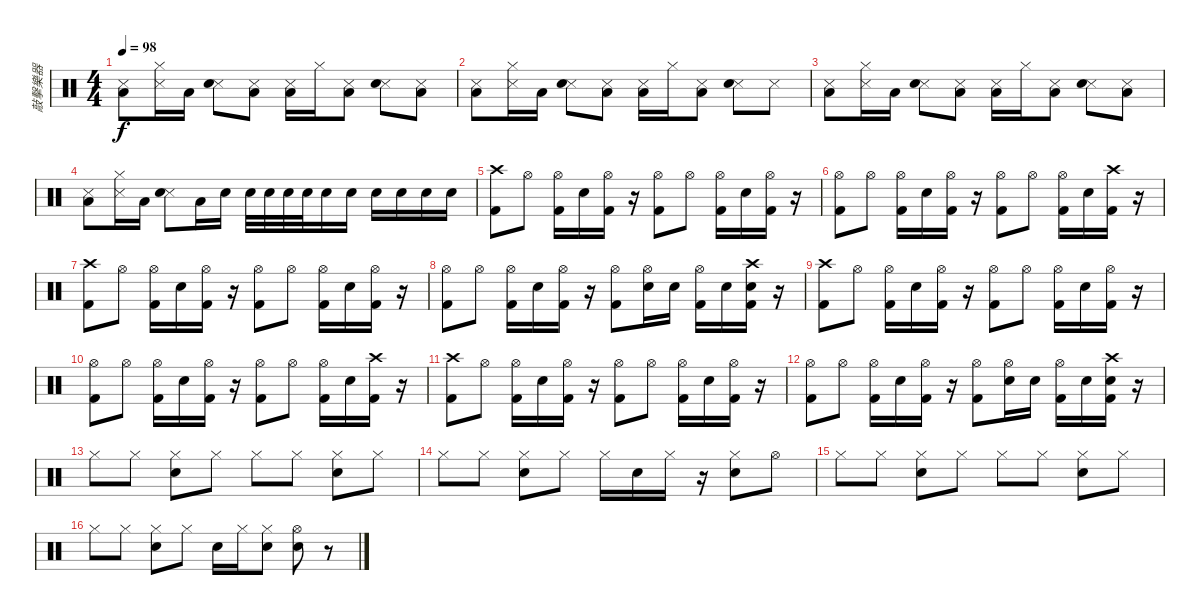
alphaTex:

\track ("敲擊樂器" "敲擊樂器") {instrument percussion}
\staff {score}
\articulation defaults
\ts (4 4)
\tempo 98
\clef neutral
\ks c
("Snare (side stick) 3" "Low Floor Tom (hit)").8{dy f volume 5} ("Snare (side stick) 3" "Hi-Hat (closed)").16 "Low Floor Tom (hit)".16 ("Snare (side stick) 3" "Electric Snare (hit)").8 ("Snare (side stick) 3" "Low Floor Tom (hit)").8 ("Snare (side stick) 3" "Low Floor Tom (hit)").16 "Hi-Hat (closed)".16 ("Snare (side stick) 3" "Low Floor Tom (hit)").8 ("Snare (side stick) 3" "Electric Snare (hit)").8 ("Snare (side stick) 3" "Low Floor Tom (hit)").8 |
("Snare (side stick) 3" "Low Floor Tom (hit)").8 ("Snare (side stick) 3" "Hi-Hat (closed)").16 "Low Floor Tom (hit)".16 ("Snare (side stick) 3" "Electric Snare (hit)").8 ("Snare (side stick) 3" "Low Floor Tom (hit)").8 ("Snare (side stick) 3" "Low Floor Tom (hit)").16 "Hi-Hat (closed)".16 ("Snare (side stick) 3" "Low Floor Tom (hit)").8 ("Snare (side stick) 3" "Electric Snare (hit)").8 "Snare (side stick) 3".8 |
("Snare (side stick) 3" "Low Floor Tom (hit)").8 ("Snare (side stick) 3" "Hi-Hat (closed)").16 "Low Floor Tom (hit)".16 ("Snare (side stick) 3" "Electric Snare (hit)").8 ("Snare (side stick) 3" "Low Floor Tom (hit)").8 ("Snare (side stick) 3" "Low Floor Tom (hit)").16 "Hi-Hat (closed)".16 ("Snare (side stick) 3" "Low Floor Tom (hit)").8 ("Snare (side stick) 3" "Electric Snare (hit)").8 ("Snare (side stick) 3" "Low Floor Tom (hit)").8 |
("Snare (side stick) 3" "Low Floor Tom (hit)").8 ("Snare (side stick) 3" "Hi-Hat (closed)").16 "Low Floor Tom (hit)".16 ("Snare (side stick) 3" "Electric Snare (hit)").8 "Low Floor Tom (hit)".16 "Snare (hit) 2".16 "Snare (hit) 2".32 "Snare (hit) 2".32 "Snare (hit) 2".32 "Snare (hit) 2".32 "Snare (hit) 2".16{volume 15 balance 8} "Snare (hit) 2".16 "Snare (hit) 2".16 "Snare (hit) 2".16 "Snare (hit) 2".16 "Snare (hit) 2".16 |
("Kick (hit) 2" "Crash high (hit)").8 "Hi-Hat (open)".8 ("Kick (hit) 2" "Hi-Hat (open)").16 "Snare (hit) 2".16 ("Kick (hit) 2" "Hi-Hat (open)").16 r.16 ("Kick (hit) 2" "Hi-Hat (open)").8 "Hi-Hat (open)".8 ("Kick (hit) 2" "Hi-Hat (open)").16 "Snare (hit) 2".16 ("Kick (hit) 2" "Hi-Hat (open)").16 r.16 |
("Kick (hit) 2" "Hi-Hat (open)").8 "Hi-Hat (open)".8 ("Kick (hit) 2" "Hi-Hat (open)").16 "Snare (hit) 2".16 ("Kick (hit) 2" "Hi-Hat (open)").16 r.16 ("Kick (hit) 2" "Hi-Hat (open)").8 "Hi-Hat (open)".8 ("Kick (hit) 2" "Hi-Hat (open)").16 "Snare (hit) 2".16 ("Kick (hit) 2" "Crash high (hit)").16 r.16 |
("Kick (hit) 2" "Crash high (hit)").8 "Hi-Hat (open)".8 ("Kick (hit) 2" "Hi-Hat (open)").16 "Snare (hit) 2".16 ("Kick (hit) 2" "Hi-Hat (open)").16 r.16 ("Kick (hit) 2" "Hi-Hat (open)").8 "Hi-Hat (open)".8 ("Kick (hit) 2" "Hi-Hat (open)").16 "Snare (hit) 2".16 ("Kick (hit) 2" "Hi-Hat (open)").16 r.16 |
("Kick (hit) 2" "Hi-Hat (open)").8 "Hi-Hat (open)".8 ("Kick (hit) 2" "Hi-Hat (open)").16 "Snare (hit) 2".16 ("Kick (hit) 2" "Hi-Hat (open)").16 r.16 ("Kick (hit) 2" "Hi-Hat (open)").8 ("Snare (hit) 2" "Hi-Hat (open)").16 "Snare (hit) 2".16 ("Kick (hit) 2" "Hi-Hat (open)").16 "Snare (hit) 2".16 ("Snare (hit) 2" "Kick (hit) 2" "Crash high (hit)").16 r.16 |
("Kick (hit) 2" "Crash high (hit)").8 "Hi-Hat (open)".8 ("Kick (hit) 2" "Hi-Hat (open)").16 "Snare (hit) 2".16 ("Kick (hit) 2" "Hi-Hat (open)").16 r.16 ("Kick (hit) 2" "Hi-Hat (open)").8 "Hi-Hat (open)".8 ("Kick (hit) 2" "Hi-Hat (open)").16 "Snare (hit) 2".16 ("Kick (hit) 2" "Hi-Hat (open)").16 r.16 |
("Kick (hit) 2" "Hi-Hat (open)").8 "Hi-Hat (open)".8 ("Kick (hit) 2" "Hi-Hat (open)").16 "Snare (hit) 2".16 ("Kick (hit) 2" "Hi-Hat (open)").16 r.16 ("Kick (hit) 2" "Hi-Hat (open)").8 "Hi-Hat (open)".8 ("Kick (hit) 2" "Hi-Hat (open)").16 "Snare (hit) 2".16 ("Kick (hit) 2" "Crash high (hit)").16 r.16 |
("Kick (hit) 2" "Crash high (hit)").8 "Hi-Hat (open)".8 ("Kick (hit) 2" "Hi-Hat (open)").16 "Snare (hit) 2".16 ("Kick (hit) 2" "Hi-Hat (open)").16 r.16 ("Kick (hit) 2" "Hi-Hat (open)").8 "Hi-Hat (open)".8 ("Kick (hit) 2" "Hi-Hat (open)").16 "Snare (hit) 2".16 ("Kick (hit) 2" "Hi-Hat (open)").16 r.16 |
("Kick (hit) 2" "Hi-Hat (open)").8 "Hi-Hat (open)".8 ("Kick (hit) 2" "Hi-Hat (open)").16 "Snare (hit) 2".16 ("Kick (hit) 2" "Hi-Hat (open)").16 r.16 ("Kick (hit) 2" "Hi-Hat (open)").8 ("Snare (hit) 2" "Hi-Hat (open)").16 "Snare (hit) 2".16 ("Kick (hit) 2" "Hi-Hat (open)").16 "Snare (hit) 2".16 ("Snare (hit) 2" "Kick (hit) 2" "Crash high (hit)").16 r.16 |
"Hi-Hat (closed)".8 "Hi-Hat (closed)".8 ("Hi-Hat (closed)" "Snare (hit) 2").8 "Hi-Hat (closed)".8 "Hi-Hat (closed)".8 "Hi-Hat (closed)".8 ("Hi-Hat (closed)" "Snare (hit) 2").8 "Hi-Hat (closed)".8 |
"Hi-Hat (closed)".8 "Hi-Hat (closed)".8 ("Hi-Hat (closed)" "Snare (hit) 2").8 "Hi-Hat (closed)".8 "Hi-Hat (closed)".16 "Snare (hit) 2".16 "Hi-Hat (closed)".16 r.16 ("Hi-Hat (closed)" "Snare (hit) 2").8 "Hi-Hat (open)".8 |
"Hi-Hat (closed)".8 "Hi-Hat (closed)".8 ("Hi-Hat (closed)" "Snare (hit) 2").8 "Hi-Hat (closed)".8 "Hi-Hat (closed)".8 "Hi-Hat (closed)".8 ("Hi-Hat (closed)" "Snare (hit) 2").8 "Hi-Hat (closed)".8 |
"Hi-Hat (closed)".8 "Hi-Hat (closed)".8 ("Hi-Hat (closed)" "Snare (hit) 2").8 "Hi-Hat (closed)".8 "Snare (hit) 2".16 "Hi-Hat (closed)".16 ("Hi-Hat (closed)" "Snare (hit) 2").8 ("Hi-Hat (open)" "Snare (hit) 2").8 r.8
